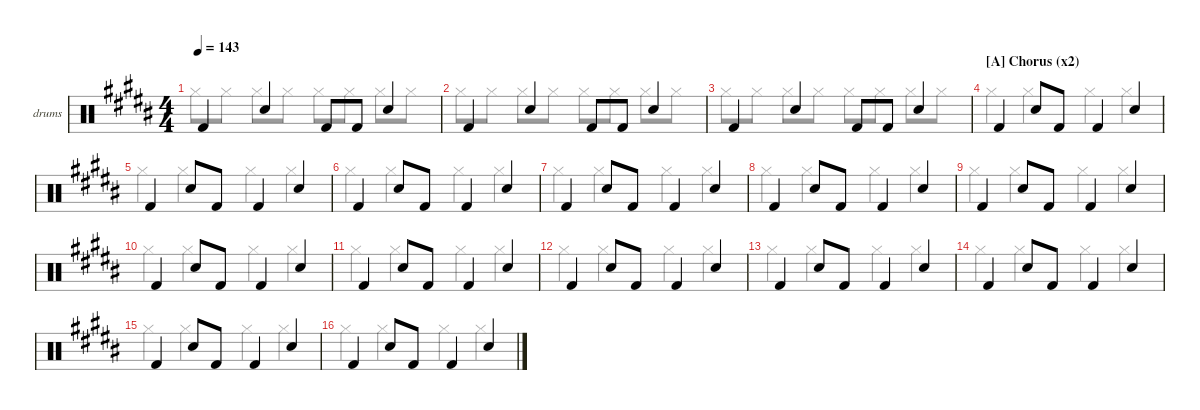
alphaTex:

\defaultSystemsLayout 4
\hideDynamics
\bracketExtendMode nobrackets
\firstSystemTrackNameOrientation horizontal
\otherSystemsTrackNameOrientation horizontal
\track ("Drumkit" "drums") {instrument percussion}
\staff {score}
\articulation defaults
\voice
\ts (4 4)
\tempo 143
\clef neutral
\ks g#minor "Kick (hit) 2"{acc forcenatural}.4{dy mf beam Up} "Snare (hit) 2"{acc forcenatural}.4{beam Up} "Kick (hit) 2"{acc forcenatural}.8{beam Up} "Kick (hit) 2"{acc forcenatural}.8{beam Up} "Snare (hit) 2"{acc forcenatural}.4{beam Up}
|
"Kick (hit) 2"{acc forcenatural}.4{beam Up} "Snare (hit) 2"{acc forcenatural}.4{beam Up} "Kick (hit) 2"{acc forcenatural}.8{beam Up} "Kick (hit) 2"{acc forcenatural}.8{beam Up} "Snare (hit) 2"{acc forcenatural}.4{beam Up} |
"Kick (hit) 2"{acc forcenatural}.4{beam Up} "Snare (hit) 2"{acc forcenatural}.4{beam Up} "Kick (hit) 2"{acc forcenatural}.8{beam Up} "Kick (hit) 2"{acc forcenatural}.8{beam Up} "Snare (hit) 2"{acc forcenatural}.4{beam Up} |
\section ("A" "Chorus (x2)")
"Kick (hit) 2"{acc forcenatural}.4{beam Up} "Snare (hit) 2"{acc forcenatural}.8{beam Up} "Kick (hit) 2"{acc forcenatural}.8{beam Up} "Kick (hit) 2"{acc forcenatural}.4{beam Up} "Snare (hit) 2"{acc forcenatural}.4{beam Up} |
"Kick (hit) 2"{acc forcenatural}.4{beam Up} "Snare (hit) 2"{acc forcenatural}.8{beam Up} "Kick (hit) 2"{acc forcenatural}.8{beam Up} "Kick (hit) 2"{acc forcenatural}.4{beam Up} "Snare (hit) 2"{acc forcenatural}.4{beam Up} |
"Kick (hit) 2"{acc forcenatural}.4{beam Up} "Snare (hit) 2"{acc forcenatural}.8{beam Up} "Kick (hit) 2"{acc forcenatural}.8{beam Up} "Kick (hit) 2"{acc forcenatural}.4{beam Up} "Snare (hit) 2"{acc forcenatural}.4{beam Up} |
"Kick (hit) 2"{acc forcenatural}.4{beam Up} "Snare (hit) 2"{acc forcenatural}.8{beam Up} "Kick (hit) 2"{acc forcenatural}.8{beam Up} "Kick (hit) 2"{acc forcenatural}.4{beam Up} "Snare (hit) 2"{acc forcenatural}.4{beam Up} |
"Kick (hit) 2"{acc forcenatural}.4{beam Up} "Snare (hit) 2"{acc forcenatural}.8{beam Up} "Kick (hit) 2"{acc forcenatural}.8{beam Up} "Kick (hit) 2"{acc forcenatural}.4{beam Up} "Snare (hit) 2"{acc forcenatural}.4{beam Up} |
"Kick (hit) 2"{acc forcenatural}.4{beam Up} "Snare (hit) 2"{acc forcenatural}.8{beam Up} "Kick (hit) 2"{acc forcenatural}.8{beam Up} "Kick (hit) 2"{acc forcenatural}.4{beam Up} "Snare (hit) 2"{acc forcenatural}.4{beam Up} |
"Kick (hit) 2"{acc forcenatural}.4{beam Up} "Snare (hit) 2"{acc forcenatural}.8{beam Up} "Kick (hit) 2"{acc forcenatural}.8{beam Up} "Kick (hit) 2"{acc forcenatural}.4{beam Up} "Snare (hit) 2"{acc forcenatural}.4{beam Up} |
"Kick (hit) 2"{acc forcenatural}.4{beam Up} "Snare (hit) 2"{acc forcenatural}.8{beam Up} "Kick (hit) 2"{acc forcenatural}.8{beam Up} "Kick (hit) 2"{acc forcenatural}.4{beam Up} "Snare (hit) 2"{acc forcenatural}.4{beam Up} |
"Kick (hit) 2"{acc forcenatural}.4{beam Up} "Snare (hit) 2"{acc forcenatural}.8{beam Up} "Kick (hit) 2"{acc forcenatural}.8{beam Up} "Kick (hit) 2"{acc forcenatural}.4{beam Up} "Snare (hit) 2"{acc forcenatural}.4{beam Up} |
"Kick (hit) 2"{acc forcenatural}.4{beam Up} "Snare (hit) 2"{acc forcenatural}.8{beam Up} "Kick (hit) 2"{acc forcenatural}.8{beam Up} "Kick (hit) 2"{acc forcenatural}.4{beam Up} "Snare (hit) 2"{acc forcenatural}.4{beam Up} |
"Kick (hit) 2"{acc forcenatural}.4{beam Up} "Snare (hit) 2"{acc forcenatural}.8{beam Up} "Kick (hit) 2"{acc forcenatural}.8{beam Up} "Kick (hit) 2"{acc forcenatural}.4{beam Up} "Snare (hit) 2"{acc forcenatural}.4{beam Up} |
"Kick (hit) 2"{acc forcenatural}.4{beam Up} "Snare (hit) 2"{acc forcenatural}.8{beam Up} "Kick (hit) 2"{acc forcenatural}.8{beam Up} "Kick (hit) 2"{acc forcenatural}.4{beam Up} "Snare (hit) 2"{acc forcenatural}.4{beam Up} |
"Kick (hit) 2"{acc forcenatural}.4{beam Up} "Snare (hit) 2"{acc forcenatural}.8{beam Up} "Kick (hit) 2"{acc forcenatural}.8{beam Up} "Kick (hit) 2"{acc forcenatural}.4{beam Up} "Snare (hit) 2"{acc forcenatural}.4{beam Up}
\voice
\clef neutral
\ottava regular
\simile none
\ks g#minor "Hi-Hat (closed)"{acc forcenatural}.8{dy mf beam Down} "Hi-Hat (closed)"{acc forcenatural}.8{beam Down} "Hi-Hat (closed)"{acc forcenatural}.8{beam Down} "Hi-Hat (closed)"{acc forcenatural}.8{beam Down} "Hi-Hat (closed)"{acc forcenatural}.8{beam Down} "Hi-Hat (closed)"{acc forcenatural}.8{beam Down} "Hi-Hat (closed)"{acc forcenatural}.8{beam Down} "Hi-Hat (closed)"{acc forcenatural}.8{beam Down}
|
"Hi-Hat (closed)"{acc forcenatural}.8{beam Down} "Hi-Hat (closed)"{acc forcenatural}.8{beam Down} "Hi-Hat (closed)"{acc forcenatural}.8{beam Down} "Hi-Hat (closed)"{acc forcenatural}.8{beam Down} "Hi-Hat (closed)"{acc forcenatural}.8{beam Down} "Hi-Hat (closed)"{acc forcenatural}.8{beam Down} "Hi-Hat (closed)"{acc forcenatural}.8{beam Down} "Hi-Hat (closed)"{acc forcenatural}.8{beam Down} |
"Hi-Hat (closed)"{acc forcenatural}.8{beam Down} "Hi-Hat (closed)"{acc forcenatural}.8{beam Down} "Hi-Hat (closed)"{acc forcenatural}.8{beam Down} "Hi-Hat (closed)"{acc forcenatural}.8{beam Down} "Hi-Hat (closed)"{acc forcenatural}.8{beam Down} "Hi-Hat (closed)"{acc forcenatural}.8{beam Down} "Hi-Hat (closed)"{acc forcenatural}.8{beam Down} "Hi-Hat (closed)"{acc forcenatural}.8{beam Down} |
"Hi-Hat (closed)"{acc forcenatural}.4{beam Down} "Hi-Hat (closed)"{acc forcenatural}.4{beam Down} "Hi-Hat (closed)"{acc forcenatural}.4{beam Down} "Hi-Hat (closed)"{acc forcenatural}.4{beam Down} |
"Hi-Hat (closed)"{acc forcenatural}.4{beam Down} "Hi-Hat (closed)"{acc forcenatural}.4{beam Down} "Hi-Hat (closed)"{acc forcenatural}.4{beam Down} "Hi-Hat (closed)"{acc forcenatural}.4{beam Down} |
"Hi-Hat (closed)"{acc forcenatural}.4{beam Down} "Hi-Hat (closed)"{acc forcenatural}.4{beam Down} "Hi-Hat (closed)"{acc forcenatural}.4{beam Down} "Hi-Hat (closed)"{acc forcenatural}.4{beam Down} |
"Hi-Hat (closed)"{acc forcenatural}.4{beam Down} "Hi-Hat (closed)"{acc forcenatural}.4{beam Down} "Hi-Hat (closed)"{acc forcenatural}.4{beam Down} "Hi-Hat (closed)"{acc forcenatural}.4{beam Down} |
"Hi-Hat (closed)"{acc forcenatural}.4{beam Down} "Hi-Hat (closed)"{acc forcenatural}.4{beam Down} "Hi-Hat (closed)"{acc forcenatural}.4{beam Down} "Hi-Hat (closed)"{acc forcenatural}.4{beam Down} |
"Hi-Hat (closed)"{acc forcenatural}.4{beam Down} "Hi-Hat (closed)"{acc forcenatural}.4{beam Down} "Hi-Hat (closed)"{acc forcenatural}.4{beam Down} "Hi-Hat (closed)"{acc forcenatural}.4{beam Down} |
"Hi-Hat (closed)"{acc forcenatural}.4{beam Down} "Hi-Hat (closed)"{acc forcenatural}.4{beam Down} "Hi-Hat (closed)"{acc forcenatural}.4{beam Down} "Hi-Hat (closed)"{acc forcenatural}.4{beam Down} |
"Hi-Hat (closed)"{acc forcenatural}.4{beam Down} "Hi-Hat (closed)"{acc forcenatural}.4{beam Down} "Hi-Hat (closed)"{acc forcenatural}.4{beam Down} "Hi-Hat (closed)"{acc forcenatural}.4{beam Down} |
"Hi-Hat (closed)"{acc forcenatural}.4{beam Down} "Hi-Hat (closed)"{acc forcenatural}.4{beam Down} "Hi-Hat (closed)"{acc forcenatural}.4{beam Down} "Hi-Hat (closed)"{acc forcenatural}.4{beam Down} |
"Hi-Hat (closed)"{acc forcenatural}.4{beam Down} "Hi-Hat (closed)"{acc forcenatural}.4{beam Down} "Hi-Hat (closed)"{acc forcenatural}.4{beam Down} "Hi-Hat (closed)"{acc forcenatural}.4{beam Down} |
"Hi-Hat (closed)"{acc forcenatural}.4{beam Down} "Hi-Hat (closed)"{acc forcenatural}.4{beam Down} "Hi-Hat (closed)"{acc forcenatural}.4{beam Down} "Hi-Hat (closed)"{acc forcenatural}.4{beam Down} |
"Hi-Hat (closed)"{acc forcenatural}.4{beam Down} "Hi-Hat (closed)"{acc forcenatural}.4{beam Down} "Hi-Hat (closed)"{acc forcenatural}.4{beam Down} "Hi-Hat (closed)"{acc forcenatural}.4{beam Down} |
"Hi-Hat (closed)"{acc forcenatural}.4{beam Down} "Hi-Hat (closed)"{acc forcenatural}.4{beam Down} "Hi-Hat (closed)"{acc forcenatural}.4{beam Down} "Hi-Hat (closed)"{acc forcenatural}.4{beam Down}
